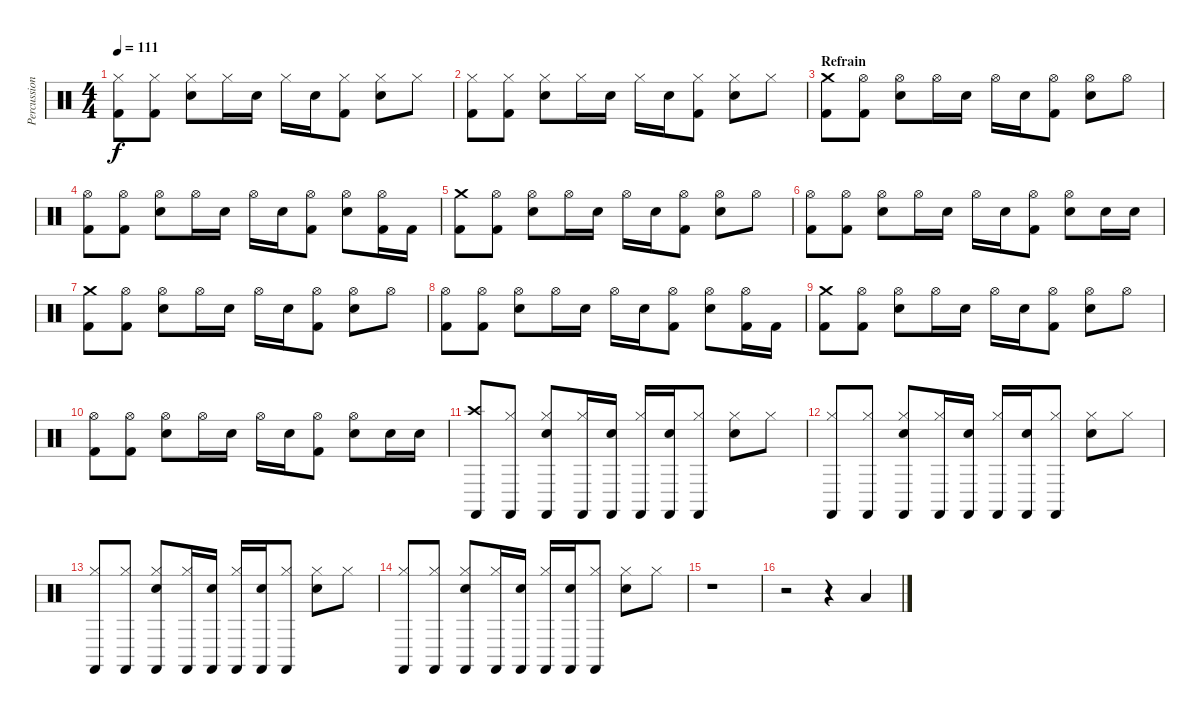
\track ("Percussions" "Percussion") {instrument percussion}
\staff {score}
\articulation defaults
\ts (4 4)
\tempo 111
\clef neutral
\ks c
("Hi-Hat (closed)" "Kick (hit) 2").8{dy f} ("Hi-Hat (closed)" "Kick (hit) 2").8 ("Hi-Hat (closed)" "Electric Snare (hit)").8 "Hi-Hat (closed)".16 "Electric Snare (hit)".16 "Hi-Hat (closed)".16 "Electric Snare (hit)".16 ("Hi-Hat (closed)" "Kick (hit) 2").8 ("Hi-Hat (closed)" "Electric Snare (hit)").8 "Hi-Hat (closed)".8 |
("Hi-Hat (closed)" "Kick (hit) 2").8 ("Hi-Hat (closed)" "Kick (hit) 2").8 ("Hi-Hat (closed)" "Electric Snare (hit)").8 "Hi-Hat (closed)".16 "Electric Snare (hit)".16 "Hi-Hat (closed)".16 "Electric Snare (hit)".16 ("Hi-Hat (closed)" "Kick (hit) 2").8 ("Hi-Hat (closed)" "Electric Snare (hit)").8 "Hi-Hat (closed)".8 |
\section ("" "Refrain")
("Crash medium (hit)" "Kick (hit) 2").8 ("Hi-Hat (open)" "Kick (hit) 2").8 ("Hi-Hat (open)" "Electric Snare (hit)").8 "Hi-Hat (open)".16 "Electric Snare (hit)".16 "Hi-Hat (open)".16 "Electric Snare (hit)".16 ("Hi-Hat (open)" "Kick (hit) 2").8 ("Hi-Hat (open)" "Electric Snare (hit)").8 "Hi-Hat (open)".8 |
("Hi-Hat (open)" "Kick (hit) 2").8 ("Hi-Hat (open)" "Kick (hit) 2").8 ("Hi-Hat (open)" "Electric Snare (hit)").8 "Hi-Hat (open)".16 "Electric Snare (hit)".16 "Hi-Hat (open)".16 "Electric Snare (hit)".16 ("Hi-Hat (open)" "Kick (hit) 2").8 ("Hi-Hat (open)" "Electric Snare (hit)").8 ("Hi-Hat (open)" "Kick (hit) 2").16 "Kick (hit) 2".16 |
("Crash medium (hit)" "Kick (hit) 2").8 ("Hi-Hat (open)" "Kick (hit) 2").8 ("Hi-Hat (open)" "Electric Snare (hit)").8 "Hi-Hat (open)".16 "Electric Snare (hit)".16 "Hi-Hat (open)".16 "Electric Snare (hit)".16 ("Hi-Hat (open)" "Kick (hit) 2").8 ("Hi-Hat (open)" "Electric Snare (hit)").8 "Hi-Hat (open)".8 |
("Hi-Hat (open)" "Kick (hit) 2").8 ("Hi-Hat (open)" "Kick (hit) 2").8 ("Hi-Hat (open)" "Electric Snare (hit)").8 "Hi-Hat (open)".16 "Electric Snare (hit)".16 "Hi-Hat (open)".16 "Electric Snare (hit)".16 ("Hi-Hat (open)" "Kick (hit) 2").8 ("Hi-Hat (open)" "Electric Snare (hit)").8 "Electric Snare (hit)".16 "Electric Snare (hit)".16 |
("Crash medium (hit)" "Kick (hit) 2").8 ("Hi-Hat (open)" "Kick (hit) 2").8 ("Hi-Hat (open)" "Electric Snare (hit)").8 "Hi-Hat (open)".16 "Electric Snare (hit)".16 "Hi-Hat (open)".16 "Electric Snare (hit)".16 ("Hi-Hat (open)" "Kick (hit) 2").8 ("Hi-Hat (open)" "Electric Snare (hit)").8 "Hi-Hat (open)".8 |
("Hi-Hat (open)" "Kick (hit) 2").8 ("Hi-Hat (open)" "Kick (hit) 2").8 ("Hi-Hat (open)" "Electric Snare (hit)").8 "Hi-Hat (open)".16 "Electric Snare (hit)".16 "Hi-Hat (open)".16 "Electric Snare (hit)".16 ("Hi-Hat (open)" "Kick (hit) 2").8 ("Hi-Hat (open)" "Electric Snare (hit)").8 ("Hi-Hat (open)" "Kick (hit) 2").16 "Kick (hit) 2".16 |
("Crash medium (hit)" "Kick (hit) 2").8 ("Hi-Hat (open)" "Kick (hit) 2").8 ("Hi-Hat (open)" "Electric Snare (hit)").8 "Hi-Hat (open)".16 "Electric Snare (hit)".16 "Hi-Hat (open)".16 "Electric Snare (hit)".16 ("Hi-Hat (open)" "Kick (hit) 2").8 ("Hi-Hat (open)" "Electric Snare (hit)").8 "Hi-Hat (open)".8 |
("Hi-Hat (open)" "Kick (hit) 2").8 ("Hi-Hat (open)" "Kick (hit) 2").8 ("Hi-Hat (open)" "Electric Snare (hit)").8 "Hi-Hat (open)".16 "Electric Snare (hit)".16 "Hi-Hat (open)".16 "Electric Snare (hit)".16 ("Hi-Hat (open)" "Kick (hit) 2").8 ("Hi-Hat (open)" "Electric Snare (hit)").8 "Electric Snare (hit)".16 "Electric Snare (hit)".16 |
("Crash high (hit)" "Castanets (hit)").8 ("Hi-Hat (closed)" "Castanets (hit)").8 ("Hi-Hat (closed)" "Electric Snare (hit)" "Castanets (hit)").8 ("Hi-Hat (closed)" "Castanets (hit)").16 ("Electric Snare (hit)" "Castanets (hit)").16 ("Hi-Hat (closed)" "Castanets (hit)").16 ("Electric Snare (hit)" "Castanets (hit)").16 ("Hi-Hat (closed)" "Castanets (hit)").8 ("Hi-Hat (closed)" "Electric Snare (hit)").8 "Hi-Hat (closed)".8 |
("Hi-Hat (closed)" "Castanets (hit)").8 ("Hi-Hat (closed)" "Castanets (hit)").8 ("Hi-Hat (closed)" "Electric Snare (hit)" "Castanets (hit)").8 ("Hi-Hat (closed)" "Castanets (hit)").16 ("Electric Snare (hit)" "Castanets (hit)").16 ("Hi-Hat (closed)" "Castanets (hit)").16 ("Electric Snare (hit)" "Castanets (hit)").16 ("Hi-Hat (closed)" "Castanets (hit)").8 ("Hi-Hat (closed)" "Electric Snare (hit)").8 "Hi-Hat (closed)".8 |
("Hi-Hat (closed)" "Castanets (hit)").8 ("Hi-Hat (closed)" "Castanets (hit)").8 ("Hi-Hat (closed)" "Electric Snare (hit)" "Castanets (hit)").8 ("Hi-Hat (closed)" "Castanets (hit)").16 ("Electric Snare (hit)" "Castanets (hit)").16 ("Hi-Hat (closed)" "Castanets (hit)").16 ("Electric Snare (hit)" "Castanets (hit)").16 ("Hi-Hat (closed)" "Castanets (hit)").8 ("Hi-Hat (closed)" "Electric Snare (hit)").8 "Hi-Hat (closed)".8 |
("Hi-Hat (closed)" "Castanets (hit)").8 ("Hi-Hat (closed)" "Castanets (hit)").8 ("Hi-Hat (closed)" "Electric Snare (hit)" "Castanets (hit)").8 ("Hi-Hat (closed)" "Castanets (hit)").16 ("Electric Snare (hit)" "Castanets (hit)").16 ("Hi-Hat (closed)" "Castanets (hit)").16 ("Electric Snare (hit)" "Castanets (hit)").16 ("Hi-Hat (closed)" "Castanets (hit)").8 ("Hi-Hat (closed)" "Electric Snare (hit)").8 "Hi-Hat (closed)".8 |
r.1 |
r.2 r.4 "Low Floor Tom (hit)"{tr (41 32)}.4
